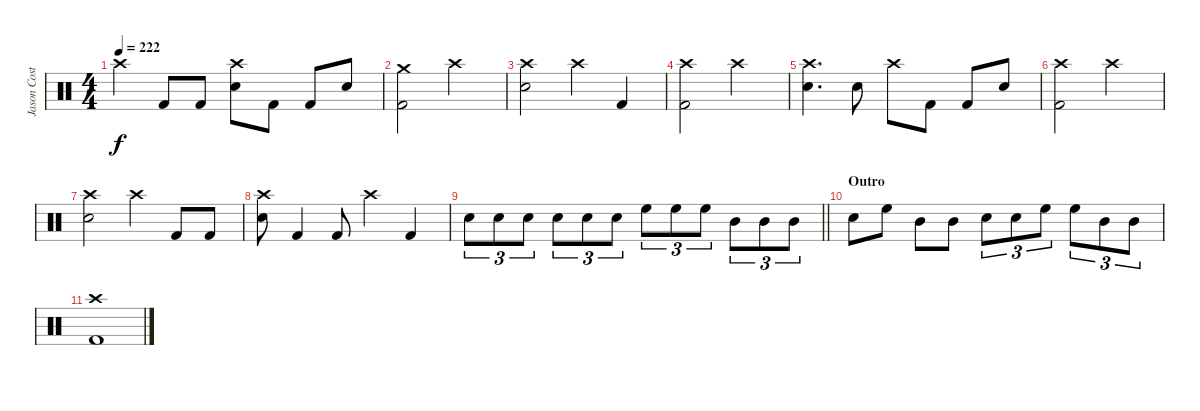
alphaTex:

\track ("Jason Costa" "Jason Cost") {instrument percussion}
\staff {score}
\articulation defaults
\ts (4 4)
\tempo 222
\clef neutral
\ks c "Crash high (hit)".4{dy f} "Kick (hit) 2".8 "Kick (hit) 2".8
("Crash high (hit)" "Electric Snare (hit)").8 "Kick (hit) 2".8 "Kick (hit) 2".8 "Electric Snare (hit)".8 |
("Crash medium (hit)" "Kick (hit) 2").2 "Crash high (hit)".2 |
("Crash high (hit)" "Electric Snare (hit)").2 "Crash high (hit)".4 "Kick (hit) 2".4 |
("Crash high (hit)" "Kick (hit) 2").2 "Crash high (hit)".2 |
("Crash high (hit)" "Electric Snare (hit)").4{d} "Electric Snare (hit)".8 "Crash high (hit)".8 "Kick (hit) 2".8 "Kick (hit) 2".8 "Electric Snare (hit)".8 |
("Crash high (hit)" "Kick (hit) 2").2 "Crash high (hit)".2 |
("Crash high (hit)" "Electric Snare (hit)").2 "Crash high (hit)".4 "Kick (hit) 2".8 "Kick (hit) 2".8 |
("Crash high (hit)" "Electric Snare (hit)").8 "Kick (hit) 2".4 "Kick (hit) 2".8 "Crash high (hit)".4 "Kick (hit) 2".4 |
\barLineRight lightlight "Electric Snare (hit)".8{tu (3 2)} "Electric Snare (hit)".8{tu (3 2)} "Electric Snare (hit)".8{tu (3 2)} "Electric Snare (hit)".8{tu (3 2)} "Electric Snare (hit)".8{tu (3 2)} "Electric Snare (hit)".8{tu (3 2)} "High Floor Tom (hit)".8{tu (3 2)} "High Floor Tom (hit)".8{tu (3 2)} "High Floor Tom (hit)".8{tu (3 2)} "Mid Tom (hit)".8{tu (3 2)} "Mid Tom (hit)".8{tu (3 2)} "Mid Tom (hit)".8{tu (3 2)}
|
\section ("" "Outro")
"Electric Snare (hit)".8 "High Floor Tom (hit)".8 "Mid Tom (hit)".8 "Mid Tom (hit)".8 "Electric Snare (hit)".8{tu (3 2)} "Electric Snare (hit)".8{tu (3 2)} "High Floor Tom (hit)".8{tu (3 2)} "High Floor Tom (hit)".8{tu (3 2)} "Mid Tom (hit)".8{tu (3 2)} "Mid Tom (hit)".8{tu (3 2)} |
("Crash high (hit)" "Kick (hit) 2").1
